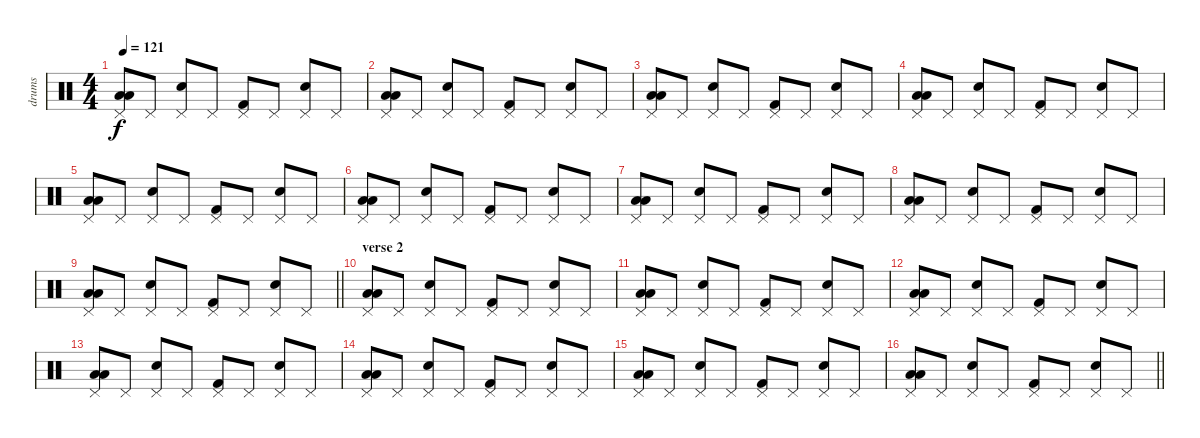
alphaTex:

\track ("drums" "drums") {instrument percussion}
\staff {score}
\articulation defaults
\ts (4 4)
\tempo 121
\clef neutral
\ks c
("Low Floor Tom (hit)" "Low Floor Tom (hit)" "Pedal Hi-Hat (hit)").8{dy f} "Pedal Hi-Hat (hit)".8 ("Hand Clap (hit)" "Pedal Hi-Hat (hit)").8 "Pedal Hi-Hat (hit)".8 ("Kick (hit) 2" "Pedal Hi-Hat (hit)").8 "Pedal Hi-Hat (hit)".8 ("Snare (hit) 2" "Pedal Hi-Hat (hit)").8 "Pedal Hi-Hat (hit)".8 |
("Low Floor Tom (hit)" "Low Floor Tom (hit)" "Pedal Hi-Hat (hit)").8 "Pedal Hi-Hat (hit)".8 ("Hand Clap (hit)" "Pedal Hi-Hat (hit)").8 "Pedal Hi-Hat (hit)".8 ("Kick (hit) 2" "Pedal Hi-Hat (hit)").8 "Pedal Hi-Hat (hit)".8 ("Snare (hit) 2" "Pedal Hi-Hat (hit)").8 "Pedal Hi-Hat (hit)".8 |
("Low Floor Tom (hit)" "Low Floor Tom (hit)" "Pedal Hi-Hat (hit)").8 "Pedal Hi-Hat (hit)".8 ("Hand Clap (hit)" "Pedal Hi-Hat (hit)").8 "Pedal Hi-Hat (hit)".8 ("Kick (hit) 2" "Pedal Hi-Hat (hit)").8 "Pedal Hi-Hat (hit)".8 ("Snare (hit) 2" "Pedal Hi-Hat (hit)").8 "Pedal Hi-Hat (hit)".8 |
("Low Floor Tom (hit)" "Low Floor Tom (hit)" "Pedal Hi-Hat (hit)").8 "Pedal Hi-Hat (hit)".8 ("Hand Clap (hit)" "Pedal Hi-Hat (hit)").8 "Pedal Hi-Hat (hit)".8 ("Kick (hit) 2" "Pedal Hi-Hat (hit)").8 "Pedal Hi-Hat (hit)".8 ("Snare (hit) 2" "Pedal Hi-Hat (hit)").8 "Pedal Hi-Hat (hit)".8 |
("Low Floor Tom (hit)" "Low Floor Tom (hit)" "Pedal Hi-Hat (hit)").8 "Pedal Hi-Hat (hit)".8 ("Hand Clap (hit)" "Pedal Hi-Hat (hit)").8 "Pedal Hi-Hat (hit)".8 ("Kick (hit) 2" "Pedal Hi-Hat (hit)").8 "Pedal Hi-Hat (hit)".8 ("Snare (hit) 2" "Pedal Hi-Hat (hit)").8 "Pedal Hi-Hat (hit)".8 |
("Low Floor Tom (hit)" "Low Floor Tom (hit)" "Pedal Hi-Hat (hit)").8 "Pedal Hi-Hat (hit)".8 ("Hand Clap (hit)" "Pedal Hi-Hat (hit)").8 "Pedal Hi-Hat (hit)".8 ("Kick (hit) 2" "Pedal Hi-Hat (hit)").8 "Pedal Hi-Hat (hit)".8 ("Snare (hit) 2" "Pedal Hi-Hat (hit)").8 "Pedal Hi-Hat (hit)".8 |
("Low Floor Tom (hit)" "Low Floor Tom (hit)" "Pedal Hi-Hat (hit)").8 "Pedal Hi-Hat (hit)".8 ("Hand Clap (hit)" "Pedal Hi-Hat (hit)").8 "Pedal Hi-Hat (hit)".8 ("Kick (hit) 2" "Pedal Hi-Hat (hit)").8 "Pedal Hi-Hat (hit)".8 ("Snare (hit) 2" "Pedal Hi-Hat (hit)").8 "Pedal Hi-Hat (hit)".8 |
("Low Floor Tom (hit)" "Low Floor Tom (hit)" "Pedal Hi-Hat (hit)").8 "Pedal Hi-Hat (hit)".8 ("Hand Clap (hit)" "Pedal Hi-Hat (hit)").8 "Pedal Hi-Hat (hit)".8 ("Kick (hit) 2" "Pedal Hi-Hat (hit)").8 "Pedal Hi-Hat (hit)".8 ("Snare (hit) 2" "Pedal Hi-Hat (hit)").8 "Pedal Hi-Hat (hit)".8 |
\barLineRight lightlight
("Low Floor Tom (hit)" "Low Floor Tom (hit)" "Pedal Hi-Hat (hit)").8 "Pedal Hi-Hat (hit)".8 ("Hand Clap (hit)" "Pedal Hi-Hat (hit)").8 "Pedal Hi-Hat (hit)".8 ("Kick (hit) 2" "Pedal Hi-Hat (hit)").8 "Pedal Hi-Hat (hit)".8 ("Snare (hit) 2" "Pedal Hi-Hat (hit)").8 "Pedal Hi-Hat (hit)".8 |
\section ("" "verse 2")
("Low Floor Tom (hit)" "Low Floor Tom (hit)" "Pedal Hi-Hat (hit)").8 "Pedal Hi-Hat (hit)".8 ("Hand Clap (hit)" "Pedal Hi-Hat (hit)").8 "Pedal Hi-Hat (hit)".8 ("Kick (hit) 2" "Pedal Hi-Hat (hit)").8 "Pedal Hi-Hat (hit)".8 ("Snare (hit) 2" "Pedal Hi-Hat (hit)").8 "Pedal Hi-Hat (hit)".8 |
("Low Floor Tom (hit)" "Low Floor Tom (hit)" "Pedal Hi-Hat (hit)").8 "Pedal Hi-Hat (hit)".8 ("Hand Clap (hit)" "Pedal Hi-Hat (hit)").8 "Pedal Hi-Hat (hit)".8 ("Kick (hit) 2" "Pedal Hi-Hat (hit)").8 "Pedal Hi-Hat (hit)".8 ("Snare (hit) 2" "Pedal Hi-Hat (hit)").8 "Pedal Hi-Hat (hit)".8 |
("Low Floor Tom (hit)" "Low Floor Tom (hit)" "Pedal Hi-Hat (hit)").8 "Pedal Hi-Hat (hit)".8 ("Hand Clap (hit)" "Pedal Hi-Hat (hit)").8 "Pedal Hi-Hat (hit)".8 ("Kick (hit) 2" "Pedal Hi-Hat (hit)").8 "Pedal Hi-Hat (hit)".8 ("Snare (hit) 2" "Pedal Hi-Hat (hit)").8 "Pedal Hi-Hat (hit)".8 |
("Low Floor Tom (hit)" "Low Floor Tom (hit)" "Pedal Hi-Hat (hit)").8 "Pedal Hi-Hat (hit)".8 ("Hand Clap (hit)" "Pedal Hi-Hat (hit)").8 "Pedal Hi-Hat (hit)".8 ("Kick (hit) 2" "Pedal Hi-Hat (hit)").8 "Pedal Hi-Hat (hit)".8 ("Snare (hit) 2" "Pedal Hi-Hat (hit)").8 "Pedal Hi-Hat (hit)".8 |
("Low Floor Tom (hit)" "Low Floor Tom (hit)" "Pedal Hi-Hat (hit)").8 "Pedal Hi-Hat (hit)".8 ("Hand Clap (hit)" "Pedal Hi-Hat (hit)").8 "Pedal Hi-Hat (hit)".8 ("Kick (hit) 2" "Pedal Hi-Hat (hit)").8 "Pedal Hi-Hat (hit)".8 ("Snare (hit) 2" "Pedal Hi-Hat (hit)").8 "Pedal Hi-Hat (hit)".8 |
("Low Floor Tom (hit)" "Low Floor Tom (hit)" "Pedal Hi-Hat (hit)").8 "Pedal Hi-Hat (hit)".8 ("Hand Clap (hit)" "Pedal Hi-Hat (hit)").8 "Pedal Hi-Hat (hit)".8 ("Kick (hit) 2" "Pedal Hi-Hat (hit)").8 "Pedal Hi-Hat (hit)".8 ("Snare (hit) 2" "Pedal Hi-Hat (hit)").8 "Pedal Hi-Hat (hit)".8 |
\barLineRight lightlight
("Low Floor Tom (hit)" "Low Floor Tom (hit)" "Pedal Hi-Hat (hit)").8 "Pedal Hi-Hat (hit)".8 ("Hand Clap (hit)" "Pedal Hi-Hat (hit)").8 "Pedal Hi-Hat (hit)".8 ("Kick (hit) 2" "Pedal Hi-Hat (hit)").8 "Pedal Hi-Hat (hit)".8 ("Snare (hit) 2" "Pedal Hi-Hat (hit)").8 "Pedal Hi-Hat (hit)".8
